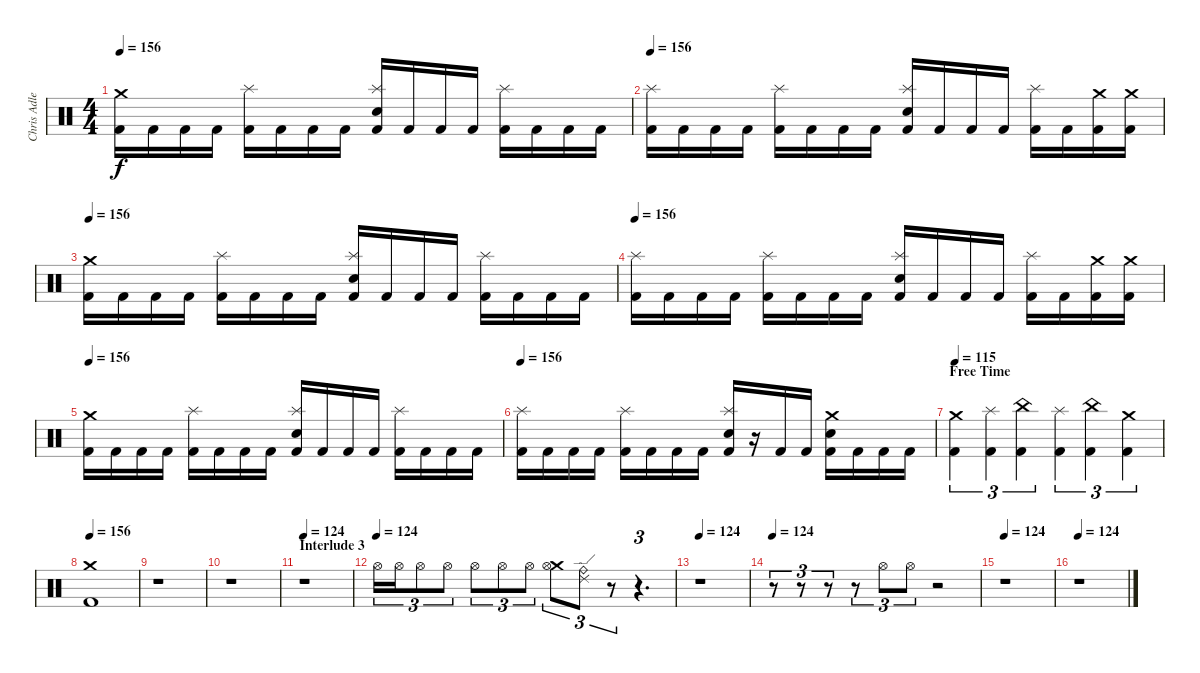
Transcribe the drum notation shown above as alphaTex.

\track ("Chris Adler" "Chris Adle") {instrument percussion}
\staff {score}
\articulation defaults
\ts (4 4)
\tempo 156
\clef neutral
\ks c
("Crash medium (hit)" "Kick (hit) 2").16{dy f} "Kick (hit) 2".16 "Kick (hit) 2".16 "Kick (hit) 2".16 ("Splash (hit)" "Kick (hit) 2").16 "Kick (hit) 2".16 "Kick (hit) 2".16 "Kick (hit) 2".16 ("Splash (hit)" "Snare (hit) 2" "Kick (hit) 2").16 "Kick (hit) 2".16 "Kick (hit) 2".16 "Kick (hit) 2".16 ("Splash (hit)" "Kick (hit) 2").16 "Kick (hit) 2".16 "Kick (hit) 2".16 "Kick (hit) 2".16 |
\tempo 156
("Splash (hit)" "Kick (hit) 2").16 "Kick (hit) 2".16 "Kick (hit) 2".16 "Kick (hit) 2".16 ("Splash (hit)" "Kick (hit) 2").16 "Kick (hit) 2".16 "Kick (hit) 2".16 "Kick (hit) 2".16 ("Splash (hit)" "Snare (hit) 2" "Kick (hit) 2").16 "Kick (hit) 2".16 "Kick (hit) 2".16 "Kick (hit) 2".16 ("Splash (hit)" "Kick (hit) 2").16 "Kick (hit) 2".16 ("Crash medium (hit)" "Kick (hit) 2").16 ("Crash medium (hit)" "Kick (hit) 2").16 |
\tempo 156
("Crash medium (hit)" "Kick (hit) 2").16 "Kick (hit) 2".16 "Kick (hit) 2".16 "Kick (hit) 2".16 ("Splash (hit)" "Kick (hit) 2").16 "Kick (hit) 2".16 "Kick (hit) 2".16 "Kick (hit) 2".16 ("Splash (hit)" "Snare (hit) 2" "Kick (hit) 2").16 "Kick (hit) 2".16 "Kick (hit) 2".16 "Kick (hit) 2".16 ("Splash (hit)" "Kick (hit) 2").16 "Kick (hit) 2".16 "Kick (hit) 2".16 "Kick (hit) 2".16 |
\tempo 156
("Splash (hit)" "Kick (hit) 2").16 "Kick (hit) 2".16 "Kick (hit) 2".16 "Kick (hit) 2".16 ("Splash (hit)" "Kick (hit) 2").16 "Kick (hit) 2".16 "Kick (hit) 2".16 "Kick (hit) 2".16 ("Splash (hit)" "Snare (hit) 2" "Kick (hit) 2").16 "Kick (hit) 2".16 "Kick (hit) 2".16 "Kick (hit) 2".16 ("Splash (hit)" "Kick (hit) 2").16 "Kick (hit) 2".16 ("Crash medium (hit)" "Kick (hit) 2").16 ("Crash medium (hit)" "Kick (hit) 2").16 |
\tempo 156
("Crash medium (hit)" "Kick (hit) 2").16 "Kick (hit) 2".16 "Kick (hit) 2".16 "Kick (hit) 2".16 ("Splash (hit)" "Kick (hit) 2").16 "Kick (hit) 2".16 "Kick (hit) 2".16 "Kick (hit) 2".16 ("Splash (hit)" "Snare (hit) 2" "Kick (hit) 2").16 "Kick (hit) 2".16 "Kick (hit) 2".16 "Kick (hit) 2".16 ("Splash (hit)" "Kick (hit) 2").16 "Kick (hit) 2".16 "Kick (hit) 2".16 "Kick (hit) 2".16 |
\tempo 156
("Splash (hit)" "Kick (hit) 2").16 "Kick (hit) 2".16 "Kick (hit) 2".16 "Kick (hit) 2".16 ("Splash (hit)" "Kick (hit) 2").16 "Kick (hit) 2".16 "Kick (hit) 2".16 "Kick (hit) 2".16 ("Splash (hit)" "Snare (hit) 2" "Kick (hit) 2").16 r.16 "Kick (hit) 2".16 "Kick (hit) 2".16 ("Crash medium (hit)" "Snare (hit) 2" "Kick (hit) 2").16 "Kick (hit) 2".16 "Kick (hit) 2".16 "Kick (hit) 2".16 |
\section ("" "Free Time")
\tempo 156
\tempo 115
("Crash medium (hit)" "Kick (hit) 2").4{tu (3 2)} ("Splash (hit)" "Kick (hit) 2").4{tu (3 2)} ("China (hit)" "Kick (hit) 2").4{tu (3 2)} ("Splash (hit)" "Kick (hit) 2").4{tu (3 2)} ("China (hit)" "Kick (hit) 2").4{tu (3 2)} ("Crash medium (hit)" "Kick (hit) 2").4{tu (3 2)} |
\tempo 156
("Crash medium (hit)" "Kick (hit) 2").1 |
r.1 |
r.1 |
\section ("" "Interlude 3")
\tempo 124
r.1 |
\tempo (124)
"Hi-Hat (open)".16{tu (3 2)} "Hi-Hat (open)".16{tu (3 2)} "Hi-Hat (open)".8{tu (3 2)} "Hi-Hat (open)".8{tu (3 2)} "Hi-Hat (open)".8{tu (3 2)} "Hi-Hat (open)".8{tu (3 2)} "Hi-Hat (open)".8{tu (3 2)} ("Crash medium (hit)" "Hi-Hat (open)").8{tu (3 2)} ("Ride (bell)" "Ride (edge) 2").8{tu (3 2)} r.8{tu (3 2)} r.4{d tu (3 2)} |
\tempo 124
r.1 |
\tempo 124
r.8{tu (3 2)} r.8{tu (3 2)} r.8{tu (3 2)} r.8{tu (3 2)} "Hi-Hat (open)".8{tu (3 2)} "Hi-Hat (open)".8{tu (3 2)} r.2 |
\tempo 124
r.1 |
\tempo 124
r.1
